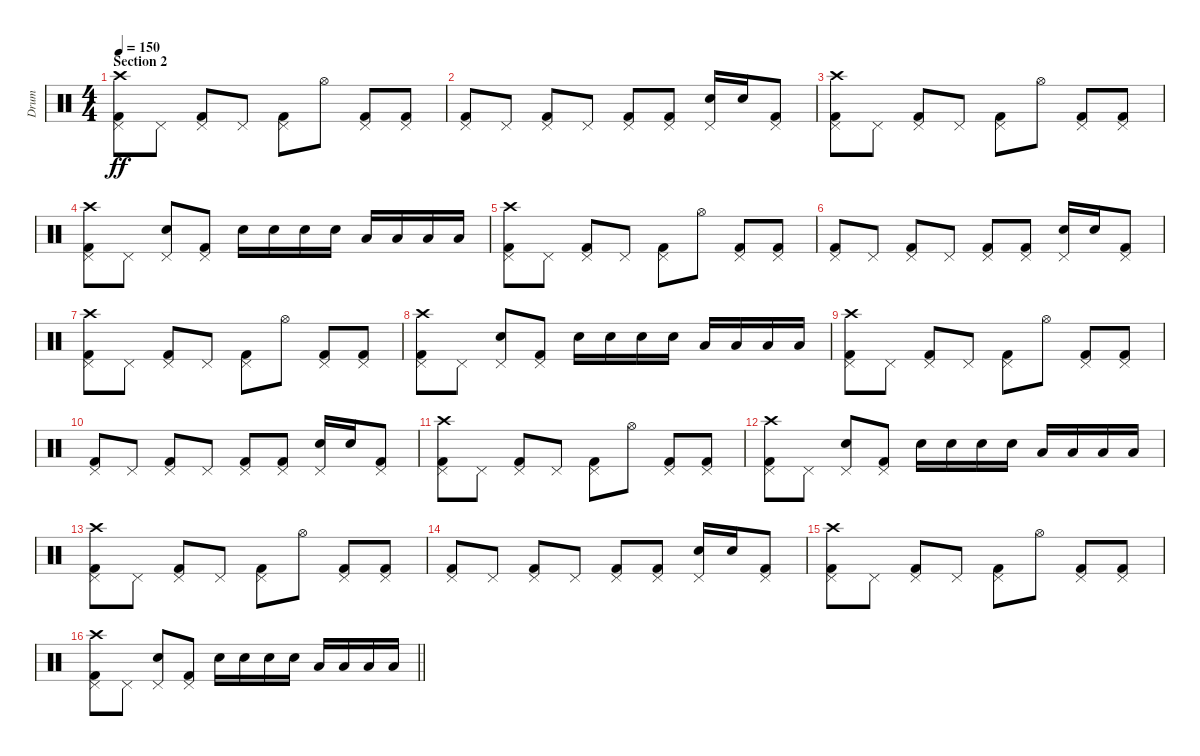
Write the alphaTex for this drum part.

\track ("Drum" "Drum") {instrument percussion}
\staff {score}
\articulation defaults
\ts (4 4)
\section ("" "Section 2")
\tempo 150
\clef neutral
\ks c
("Pedal Hi-Hat (hit)" "Kick (hit) 2" "Crash high (hit)").8{dy ff} "Pedal Hi-Hat (hit)".8 ("Pedal Hi-Hat (hit)" "Kick (hit) 2").8 "Pedal Hi-Hat (hit)".8 ("Pedal Hi-Hat (hit)" "Kick (hit) 2").8 "Hi-Hat (open)".8 ("Pedal Hi-Hat (hit)" "Kick (hit) 2").8 ("Pedal Hi-Hat (hit)" "Kick (hit) 2").8 |
("Pedal Hi-Hat (hit)" "Kick (hit) 2").8 "Pedal Hi-Hat (hit)".8 ("Pedal Hi-Hat (hit)" "Kick (hit) 2").8 "Pedal Hi-Hat (hit)".8 ("Pedal Hi-Hat (hit)" "Kick (hit) 2").8 ("Kick (hit) 2" "Pedal Hi-Hat (hit)").8 ("Electric Snare (hit)" "Pedal Hi-Hat (hit)").16 "Electric Snare (hit)".16 ("Kick (hit) 2" "Pedal Hi-Hat (hit)").8 |
("Pedal Hi-Hat (hit)" "Kick (hit) 2" "Crash high (hit)").8 "Pedal Hi-Hat (hit)".8 ("Pedal Hi-Hat (hit)" "Kick (hit) 2").8 "Pedal Hi-Hat (hit)".8 ("Pedal Hi-Hat (hit)" "Kick (hit) 2").8 "Hi-Hat (open)".8 ("Pedal Hi-Hat (hit)" "Kick (hit) 2").8 ("Pedal Hi-Hat (hit)" "Kick (hit) 2").8 |
("Pedal Hi-Hat (hit)" "Kick (hit) 2" "Crash high (hit)").8 "Pedal Hi-Hat (hit)".8 ("Pedal Hi-Hat (hit)" "Electric Snare (hit)").8 ("Pedal Hi-Hat (hit)" "Kick (hit) 2").8 "Electric Snare (hit)".16 "Electric Snare (hit)".16 "Electric Snare (hit)".16 "Electric Snare (hit)".16 "Low Floor Tom (hit)".16 "Low Floor Tom (hit)".16 "Low Floor Tom (hit)".16 "Low Floor Tom (hit)".16 |
("Pedal Hi-Hat (hit)" "Kick (hit) 2" "Crash high (hit)").8 "Pedal Hi-Hat (hit)".8 ("Pedal Hi-Hat (hit)" "Kick (hit) 2").8 "Pedal Hi-Hat (hit)".8 ("Pedal Hi-Hat (hit)" "Kick (hit) 2").8 "Hi-Hat (open)".8 ("Pedal Hi-Hat (hit)" "Kick (hit) 2").8 ("Pedal Hi-Hat (hit)" "Kick (hit) 2").8 |
("Pedal Hi-Hat (hit)" "Kick (hit) 2").8 "Pedal Hi-Hat (hit)".8 ("Pedal Hi-Hat (hit)" "Kick (hit) 2").8 "Pedal Hi-Hat (hit)".8 ("Pedal Hi-Hat (hit)" "Kick (hit) 2").8 ("Kick (hit) 2" "Pedal Hi-Hat (hit)").8 ("Electric Snare (hit)" "Pedal Hi-Hat (hit)").16 "Electric Snare (hit)".16 ("Kick (hit) 2" "Pedal Hi-Hat (hit)").8 |
("Pedal Hi-Hat (hit)" "Kick (hit) 2" "Crash high (hit)").8 "Pedal Hi-Hat (hit)".8 ("Pedal Hi-Hat (hit)" "Kick (hit) 2").8 "Pedal Hi-Hat (hit)".8 ("Pedal Hi-Hat (hit)" "Kick (hit) 2").8 "Hi-Hat (open)".8 ("Pedal Hi-Hat (hit)" "Kick (hit) 2").8 ("Pedal Hi-Hat (hit)" "Kick (hit) 2").8 |
("Pedal Hi-Hat (hit)" "Kick (hit) 2" "Crash high (hit)").8 "Pedal Hi-Hat (hit)".8 ("Pedal Hi-Hat (hit)" "Electric Snare (hit)").8 ("Pedal Hi-Hat (hit)" "Kick (hit) 2").8 "Electric Snare (hit)".16 "Electric Snare (hit)".16 "Electric Snare (hit)".16 "Electric Snare (hit)".16 "Low Floor Tom (hit)".16 "Low Floor Tom (hit)".16 "Low Floor Tom (hit)".16 "Low Floor Tom (hit)".16 |
("Pedal Hi-Hat (hit)" "Kick (hit) 2" "Crash high (hit)").8 "Pedal Hi-Hat (hit)".8 ("Pedal Hi-Hat (hit)" "Kick (hit) 2").8 "Pedal Hi-Hat (hit)".8 ("Pedal Hi-Hat (hit)" "Kick (hit) 2").8 "Hi-Hat (open)".8 ("Pedal Hi-Hat (hit)" "Kick (hit) 2").8 ("Pedal Hi-Hat (hit)" "Kick (hit) 2").8 |
("Pedal Hi-Hat (hit)" "Kick (hit) 2").8 "Pedal Hi-Hat (hit)".8 ("Pedal Hi-Hat (hit)" "Kick (hit) 2").8 "Pedal Hi-Hat (hit)".8 ("Pedal Hi-Hat (hit)" "Kick (hit) 2").8 ("Kick (hit) 2" "Pedal Hi-Hat (hit)").8 ("Electric Snare (hit)" "Pedal Hi-Hat (hit)").16 "Electric Snare (hit)".16 ("Kick (hit) 2" "Pedal Hi-Hat (hit)").8 |
("Pedal Hi-Hat (hit)" "Kick (hit) 2" "Crash high (hit)").8 "Pedal Hi-Hat (hit)".8 ("Pedal Hi-Hat (hit)" "Kick (hit) 2").8 "Pedal Hi-Hat (hit)".8 ("Pedal Hi-Hat (hit)" "Kick (hit) 2").8 "Hi-Hat (open)".8 ("Pedal Hi-Hat (hit)" "Kick (hit) 2").8 ("Pedal Hi-Hat (hit)" "Kick (hit) 2").8 |
("Pedal Hi-Hat (hit)" "Kick (hit) 2" "Crash high (hit)").8 "Pedal Hi-Hat (hit)".8 ("Pedal Hi-Hat (hit)" "Electric Snare (hit)").8 ("Pedal Hi-Hat (hit)" "Kick (hit) 2").8 "Electric Snare (hit)".16 "Electric Snare (hit)".16 "Electric Snare (hit)".16 "Electric Snare (hit)".16 "Low Floor Tom (hit)".16 "Low Floor Tom (hit)".16 "Low Floor Tom (hit)".16 "Low Floor Tom (hit)".16 |
("Pedal Hi-Hat (hit)" "Kick (hit) 2" "Crash high (hit)").8 "Pedal Hi-Hat (hit)".8 ("Pedal Hi-Hat (hit)" "Kick (hit) 2").8 "Pedal Hi-Hat (hit)".8 ("Pedal Hi-Hat (hit)" "Kick (hit) 2").8 "Hi-Hat (open)".8 ("Pedal Hi-Hat (hit)" "Kick (hit) 2").8 ("Pedal Hi-Hat (hit)" "Kick (hit) 2").8 |
("Pedal Hi-Hat (hit)" "Kick (hit) 2").8 "Pedal Hi-Hat (hit)".8 ("Pedal Hi-Hat (hit)" "Kick (hit) 2").8 "Pedal Hi-Hat (hit)".8 ("Pedal Hi-Hat (hit)" "Kick (hit) 2").8 ("Kick (hit) 2" "Pedal Hi-Hat (hit)").8 ("Electric Snare (hit)" "Pedal Hi-Hat (hit)").16 "Electric Snare (hit)".16 ("Kick (hit) 2" "Pedal Hi-Hat (hit)").8 |
("Pedal Hi-Hat (hit)" "Kick (hit) 2" "Crash high (hit)").8 "Pedal Hi-Hat (hit)".8 ("Pedal Hi-Hat (hit)" "Kick (hit) 2").8 "Pedal Hi-Hat (hit)".8 ("Pedal Hi-Hat (hit)" "Kick (hit) 2").8 "Hi-Hat (open)".8 ("Pedal Hi-Hat (hit)" "Kick (hit) 2").8 ("Pedal Hi-Hat (hit)" "Kick (hit) 2").8 |
\barLineRight lightlight
("Pedal Hi-Hat (hit)" "Kick (hit) 2" "Crash high (hit)").8 "Pedal Hi-Hat (hit)".8 ("Pedal Hi-Hat (hit)" "Electric Snare (hit)").8 ("Pedal Hi-Hat (hit)" "Kick (hit) 2").8 "Electric Snare (hit)".16 "Electric Snare (hit)".16 "Electric Snare (hit)".16 "Electric Snare (hit)".16 "Low Floor Tom (hit)".16 "Low Floor Tom (hit)".16 "Low Floor Tom (hit)".16 "Low Floor Tom (hit)".16
